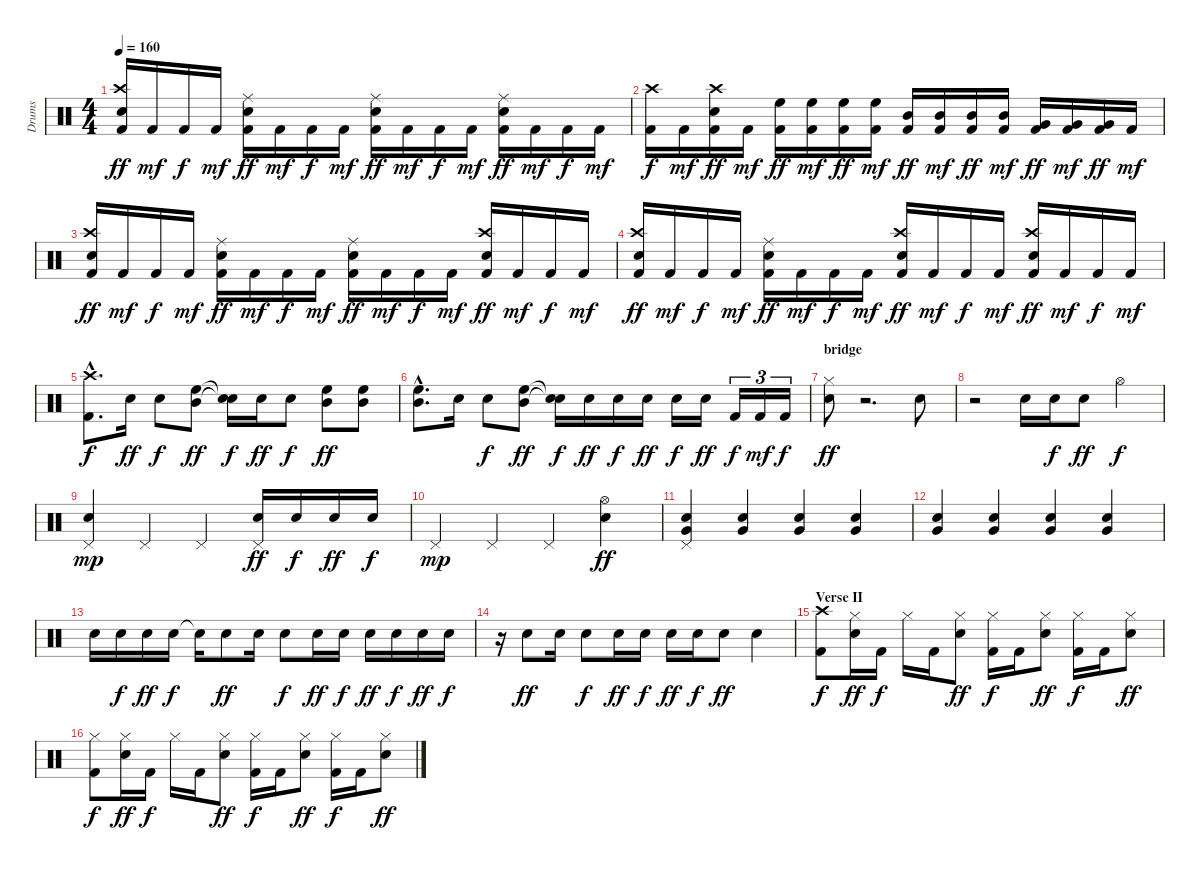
\track ("Drums" "Drums") {instrument percussion}
\staff {score}
\articulation defaults
\ts (4 4)
\tempo 160
\clef neutral
\ks c
("Snare (hit) 2" "Crash high (hit)" "Kick (hit) 2").16{dy ff} "Kick (hit) 2".16{dy mf} "Kick (hit) 2".16{dy f} "Kick (hit) 2".16{dy mf} ("Snare (hit) 2" "Ride (middle)" "Kick (hit) 2").16{dy ff} "Kick (hit) 2".16{dy mf} "Kick (hit) 2".16{dy f} "Kick (hit) 2".16{dy mf} ("Snare (hit) 2" "Ride (middle)" "Kick (hit) 2").16{dy ff} "Kick (hit) 2".16{dy mf} "Kick (hit) 2".16{dy f} "Kick (hit) 2".16{dy mf} ("Snare (hit) 2" "Ride (middle)" "Kick (hit) 2").16{dy ff} "Kick (hit) 2".16{dy mf} "Kick (hit) 2".16{dy f} "Kick (hit) 2".16{dy mf} |
("Crash high (hit)" "Kick (hit) 2").16{dy f} "Kick (hit) 2".16{dy mf} ("Snare (hit) 2" "Crash high (hit)" "Kick (hit) 2").16{dy ff} "Kick (hit) 2".16{dy mf} ("High Floor Tom (hit)" "Kick (hit) 2").16{dy ff} ("High Floor Tom (hit)" "Kick (hit) 2").16{dy mf} ("High Floor Tom (hit)" "Kick (hit) 2").16{dy ff} ("High Floor Tom (hit)" "Kick (hit) 2").16{dy mf} ("Mid Tom (hit)" "Kick (hit) 2").16{dy ff} ("Mid Tom (hit)" "Kick (hit) 2").16{dy mf} ("Mid Tom (hit)" "Kick (hit) 2").16{dy ff} ("Mid Tom (hit)" "Kick (hit) 2").16{dy mf} ("Very Low Tom (hit)" "Kick (hit) 2").16{dy ff} ("Very Low Tom (hit)" "Kick (hit) 2").16{dy mf} ("Very Low Tom (hit)" "Kick (hit) 2").16{dy ff} "Kick (hit) 2".16{dy mf} |
("Snare (hit) 2" "Crash high (hit)" "Kick (hit) 2").16{dy ff} "Kick (hit) 2".16{dy mf} "Kick (hit) 2".16{dy f} "Kick (hit) 2".16{dy mf} ("Snare (hit) 2" "Ride (middle)" "Kick (hit) 2").16{dy ff} "Kick (hit) 2".16{dy mf} "Kick (hit) 2".16{dy f} "Kick (hit) 2".16{dy mf} ("Snare (hit) 2" "Ride (middle)" "Kick (hit) 2").16{dy ff} "Kick (hit) 2".16{dy mf} "Kick (hit) 2".16{dy f} "Kick (hit) 2".16{dy mf} ("Snare (hit) 2" "Crash high (hit)" "Kick (hit) 2").16{dy ff} "Kick (hit) 2".16{dy mf} "Kick (hit) 2".16{dy f} "Kick (hit) 2".16{dy mf} |
("Snare (hit) 2" "Crash high (hit)" "Kick (hit) 2").16{dy ff} "Kick (hit) 2".16{dy mf} "Kick (hit) 2".16{dy f} "Kick (hit) 2".16{dy mf} ("Snare (hit) 2" "Ride (middle)" "Kick (hit) 2").16{dy ff} "Kick (hit) 2".16{dy mf} "Kick (hit) 2".16{dy f} "Kick (hit) 2".16{dy mf} ("Snare (hit) 2" "Crash high (hit)" "Kick (hit) 2").16{dy ff} "Kick (hit) 2".16{dy mf} "Kick (hit) 2".16{dy f} "Kick (hit) 2".16{dy mf} ("Snare (hit) 2" "Crash high (hit)" "Kick (hit) 2").16{dy ff} "Kick (hit) 2".16{dy mf} "Kick (hit) 2".16{dy f} "Kick (hit) 2".16{dy mf} |
("Crash high (hit)"{hac} "Kick (hit) 2"{hac}).8{d dy f} "Snare (hit) 2".16{dy ff} "Snare (hit) 2".8{dy f} ("Mid Tom (hit)" "High Floor Tom (hit)").8{dy ff} ("Snare (hit)"{t} "Snare (hit)"{t}).16{dy f} "Snare (hit) 2".16{dy ff} "Snare (hit) 2".8{dy f} ("Mid Tom (hit)" "High Floor Tom (hit)").8{dy ff} ("Mid Tom (hit)" "High Floor Tom (hit)").8 |
("Mid Tom (hit)"{hac} "High Floor Tom (hit)"{hac}).8{d} "Snare (hit) 2".16 "Snare (hit) 2".8{dy f} ("Mid Tom (hit)" "High Floor Tom (hit)").8{dy ff} ("Snare (hit)"{t} "Snare (hit)"{t}).16{dy f} "Snare (hit) 2".16{dy ff} "Snare (hit) 2".16{dy f} "Snare (hit) 2".16{dy ff} "Snare (hit) 2".16{dy f} "Snare (hit) 2".16{dy ff} "Kick (hit) 2".16{tu (3 2) dy f} "Kick (hit) 2".16{tu (3 2) dy mf} "Kick (hit) 2".16{tu (3 2) dy f} |
\section ("" "bridge")
("Hi-Hat (closed)" "Snare (hit) 2").8{dy ff} r.2{d} "Snare (hit) 2".8 |
r.2 "Snare (hit) 2".16 "Snare (hit) 2".16{dy f} "Snare (hit) 2".8{dy ff} "Hi-Hat (open)".4{dy f} |
("Snare (hit) 2" "Pedal Hi-Hat (hit)").4{dy mp} "Pedal Hi-Hat (hit)".4 "Pedal Hi-Hat (hit)".4 ("Pedal Hi-Hat (hit)" "Snare (hit) 2").16{dy ff} "Snare (hit) 2".16{dy f} "Snare (hit) 2".16{dy ff} "Snare (hit) 2".16{dy f} |
"Pedal Hi-Hat (hit)".4{dy mp} "Pedal Hi-Hat (hit)".4 "Pedal Hi-Hat (hit)".4 ("Hi-Hat (open)" "Snare (hit) 2").4{dy ff} |
("Snare (hit) 2" "Pedal Hi-Hat (hit)" "Very Low Tom (hit)").4 ("Very Low Tom (hit)" "Snare (hit) 2").4 ("Very Low Tom (hit)" "Snare (hit) 2").4 ("Very Low Tom (hit)" "Snare (hit) 2").4 |
("Very Low Tom (hit)" "Snare (hit) 2").4 ("Very Low Tom (hit)" "Snare (hit) 2").4 ("Very Low Tom (hit)" "Snare (hit) 2").4 ("Very Low Tom (hit)" "Snare (hit) 2").4 |
"Snare (hit) 2".16 "Snare (hit) 2".16{dy f} "Snare (hit) 2".16{dy ff} "Snare (hit) 2".16{dy f} "Snare (hit)"{t}.16 "Snare (hit) 2".8{dy ff} "Snare (hit) 2".16 "Snare (hit) 2".8{dy f} "Snare (hit) 2".16{dy ff} "Snare (hit) 2".16{dy f} "Snare (hit) 2".16{dy ff} "Snare (hit) 2".16{dy f} "Snare (hit) 2".16{dy ff} "Snare (hit) 2".16{dy f} |
r.16 "Snare (hit) 2".8{dy ff} "Snare (hit) 2".16 "Snare (hit) 2".8{dy f} "Snare (hit) 2".16{dy ff} "Snare (hit) 2".16{dy f} "Snare (hit) 2".16{dy ff} "Snare (hit) 2".16{dy f} "Snare (hit) 2".8{dy ff} "Snare (hit) 2".4 |
\section ("" "Verse II")
("Crash high (hit)" "Kick (hit) 2").8{dy f} ("Hi-Hat (closed)" "Snare (hit) 2").16{dy ff} "Kick (hit) 2".16{dy f} "Hi-Hat (closed)".16 "Kick (hit) 2".16 ("Hi-Hat (closed)" "Snare (hit) 2").8{dy ff} ("Hi-Hat (closed)" "Kick (hit) 2").16{dy f} "Kick (hit) 2".16 ("Hi-Hat (closed)" "Snare (hit) 2").8{dy ff} ("Hi-Hat (closed)" "Kick (hit) 2").16{dy f} "Kick (hit) 2".16 ("Hi-Hat (closed)" "Snare (hit) 2").8{dy ff} |
("Hi-Hat (closed)" "Kick (hit) 2").8{dy f} ("Hi-Hat (closed)" "Snare (hit) 2").16{dy ff} "Kick (hit) 2".16{dy f} "Hi-Hat (closed)".16 "Kick (hit) 2".16 ("Hi-Hat (closed)" "Snare (hit) 2").8{dy ff} ("Hi-Hat (closed)" "Kick (hit) 2").16{dy f} "Kick (hit) 2".16 ("Hi-Hat (closed)" "Snare (hit) 2").8{dy ff} ("Hi-Hat (closed)" "Kick (hit) 2").16{dy f} "Kick (hit) 2".16 ("Hi-Hat (closed)" "Snare (hit) 2").8{dy ff}
